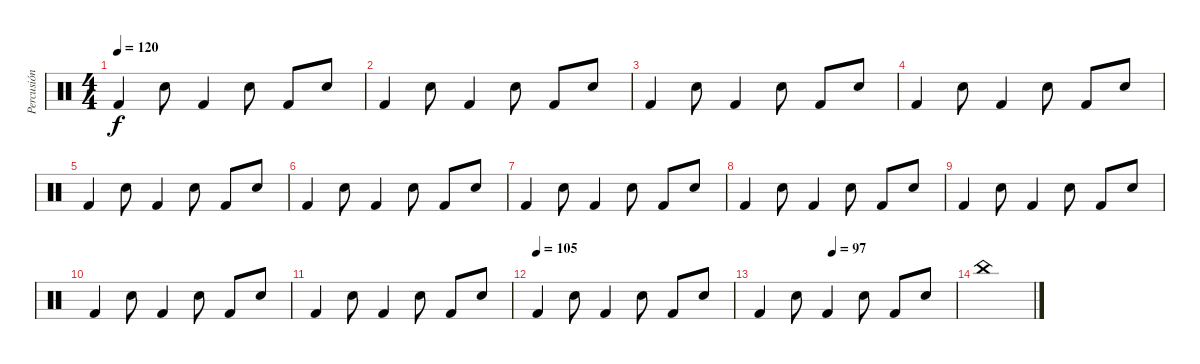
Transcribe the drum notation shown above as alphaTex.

\track ("Percusión" "Percusión") {instrument percussion}
\staff {score}
\articulation defaults
\ts (4 4)
\tempo 120
\clef neutral
\ks c "Kick (hit) 2".4{dy f} "Snare (hit) 2".8 "Kick (hit) 2".4 "Electric Snare (hit)".8 "Kick (hit) 2".8 "Snare (hit) 2".8
|
"Kick (hit) 2".4 "Snare (hit) 2".8 "Kick (hit) 2".4 "Electric Snare (hit)".8 "Kick (hit) 2".8 "Snare (hit) 2".8 |
"Kick (hit) 2".4 "Snare (hit) 2".8 "Kick (hit) 2".4 "Electric Snare (hit)".8 "Kick (hit) 2".8 "Snare (hit) 2".8 |
"Kick (hit) 2".4 "Snare (hit) 2".8 "Kick (hit) 2".4 "Electric Snare (hit)".8 "Kick (hit) 2".8 "Snare (hit) 2".8 |
"Kick (hit) 2".4 "Snare (hit) 2".8 "Kick (hit) 2".4 "Electric Snare (hit)".8 "Kick (hit) 2".8 "Snare (hit) 2".8 |
"Kick (hit) 2".4 "Snare (hit) 2".8 "Kick (hit) 2".4 "Electric Snare (hit)".8 "Kick (hit) 2".8 "Snare (hit) 2".8 |
"Kick (hit) 2".4 "Snare (hit) 2".8 "Kick (hit) 2".4 "Electric Snare (hit)".8 "Kick (hit) 2".8 "Snare (hit) 2".8 |
"Kick (hit) 2".4 "Snare (hit) 2".8 "Kick (hit) 2".4 "Electric Snare (hit)".8 "Kick (hit) 2".8 "Snare (hit) 2".8 |
"Kick (hit) 2".4 "Snare (hit) 2".8 "Kick (hit) 2".4 "Electric Snare (hit)".8 "Kick (hit) 2".8 "Snare (hit) 2".8 |
"Kick (hit) 2".4 "Snare (hit) 2".8 "Kick (hit) 2".4 "Electric Snare (hit)".8 "Kick (hit) 2".8 "Snare (hit) 2".8 |
"Kick (hit) 2".4 "Snare (hit) 2".8 "Kick (hit) 2".4 "Electric Snare (hit)".8 "Kick (hit) 2".8 "Snare (hit) 2".8 |
\tempo (105)
"Kick (hit) 2".4 "Snare (hit) 2".8 "Kick (hit) 2".4 "Electric Snare (hit)".8 "Kick (hit) 2".8 "Snare (hit) 2".8 |
\tempo (97 0.375)
"Kick (hit) 2".4 "Snare (hit) 2".8 "Kick (hit) 2".4 "Electric Snare (hit)".8 "Kick (hit) 2".8 "Snare (hit) 2".8 |
"China (hit)".1
